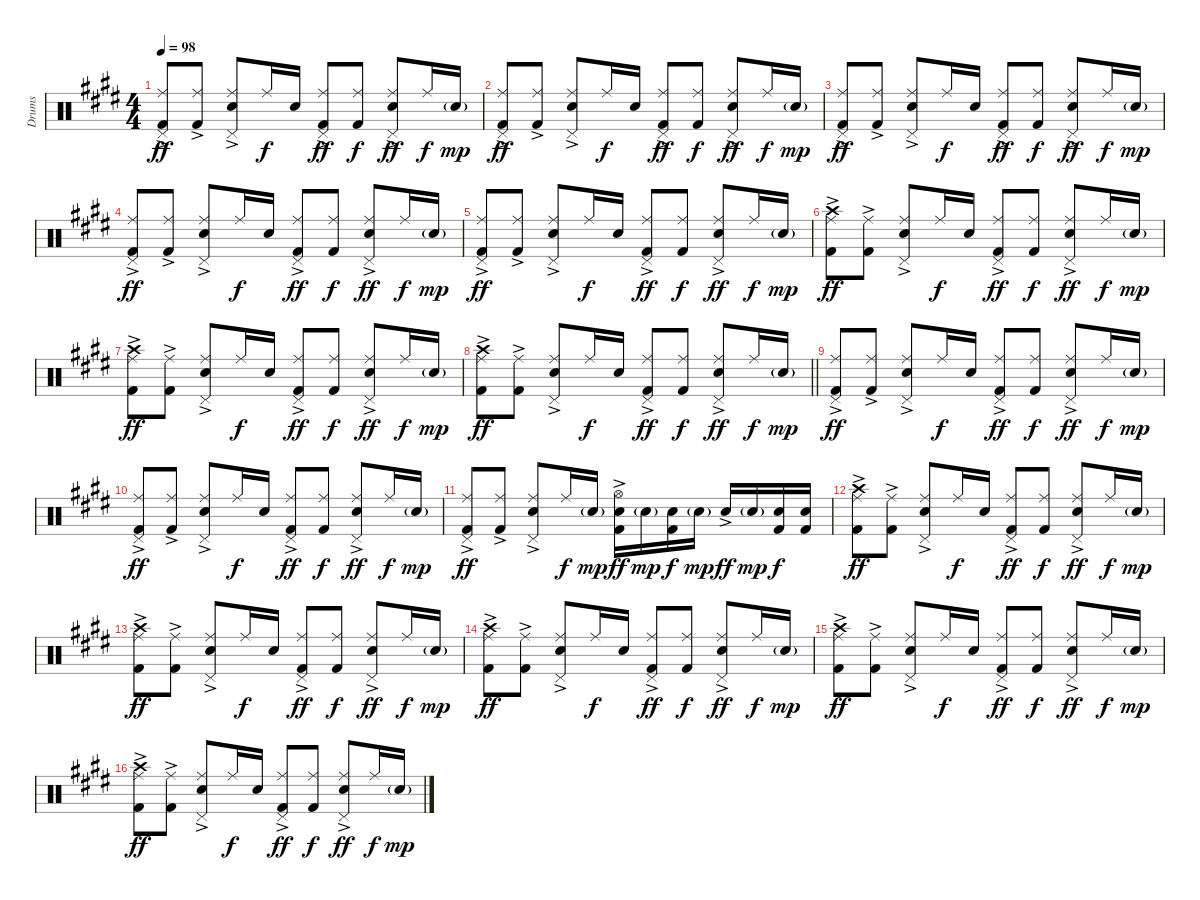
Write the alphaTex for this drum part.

\track ("Drums" "Drums") {instrument percussion}
\staff {score}
\articulation defaults
\ts (4 4)
\tempo 98
\clef neutral
\ks e
("Pedal Hi-Hat (hit)" "Ride (middle)" "Kick (hit) 2"{ac}).8{dy ff} ("Ride (middle)" "Kick (hit) 2"{ac}).8 ("Pedal Hi-Hat (hit)" "Snare (hit) 2"{ac} "Ride (middle)").8 "Ride (middle)".16{dy f} "Snare (hit) 2".16 ("Pedal Hi-Hat (hit)" "Ride (middle)" "Kick (hit) 2"{ac}).8{dy ff} ("Ride (middle)" "Kick (hit) 2").8{dy f} ("Pedal Hi-Hat (hit)" "Snare (hit) 2"{ac} "Ride (middle)").8{dy ff} "Ride (middle)".16{dy f} "Snare (hit) 2"{g}.16{dy mp} |
("Pedal Hi-Hat (hit)" "Ride (middle)" "Kick (hit) 2"{ac}).8{dy ff} ("Ride (middle)" "Kick (hit) 2"{ac}).8 ("Pedal Hi-Hat (hit)" "Snare (hit) 2"{ac} "Ride (middle)").8 "Ride (middle)".16{dy f} "Snare (hit) 2".16 ("Pedal Hi-Hat (hit)" "Ride (middle)" "Kick (hit) 2"{ac}).8{dy ff} ("Ride (middle)" "Kick (hit) 2").8{dy f} ("Pedal Hi-Hat (hit)" "Snare (hit) 2"{ac} "Ride (middle)").8{dy ff} "Ride (middle)".16{dy f} "Snare (hit) 2"{g}.16{dy mp} |
("Pedal Hi-Hat (hit)" "Ride (middle)" "Kick (hit) 2"{ac}).8{dy ff} ("Ride (middle)" "Kick (hit) 2"{ac}).8 ("Pedal Hi-Hat (hit)" "Snare (hit) 2"{ac} "Ride (middle)").8 "Ride (middle)".16{dy f} "Snare (hit) 2".16 ("Pedal Hi-Hat (hit)" "Ride (middle)" "Kick (hit) 2"{ac}).8{dy ff} ("Ride (middle)" "Kick (hit) 2").8{dy f} ("Pedal Hi-Hat (hit)" "Snare (hit) 2"{ac} "Ride (middle)").8{dy ff} "Ride (middle)".16{dy f} "Snare (hit) 2"{g}.16{dy mp} |
("Pedal Hi-Hat (hit)" "Ride (middle)" "Kick (hit) 2"{ac}).8{dy ff} ("Ride (middle)" "Kick (hit) 2"{ac}).8 ("Pedal Hi-Hat (hit)" "Snare (hit) 2"{ac} "Ride (middle)").8 "Ride (middle)".16{dy f} "Snare (hit) 2".16 ("Pedal Hi-Hat (hit)" "Ride (middle)" "Kick (hit) 2"{ac}).8{dy ff} ("Ride (middle)" "Kick (hit) 2").8{dy f} ("Pedal Hi-Hat (hit)" "Snare (hit) 2"{ac} "Ride (middle)").8{dy ff} "Ride (middle)".16{dy f} "Snare (hit) 2"{g}.16{dy mp} |
("Pedal Hi-Hat (hit)" "Ride (middle)" "Kick (hit) 2"{ac}).8{dy ff} ("Ride (middle)" "Kick (hit) 2"{ac}).8 ("Pedal Hi-Hat (hit)" "Snare (hit) 2"{ac} "Ride (middle)").8 "Ride (middle)".16{dy f} "Snare (hit) 2".16 ("Pedal Hi-Hat (hit)" "Ride (middle)" "Kick (hit) 2"{ac}).8{dy ff} ("Ride (middle)" "Kick (hit) 2").8{dy f} ("Pedal Hi-Hat (hit)" "Snare (hit) 2"{ac} "Ride (middle)").8{dy ff} "Ride (middle)".16{dy f} "Snare (hit) 2"{g}.16{dy mp} |
("Crash high (hit)" "Ride (middle)" "Kick (hit) 2"{ac}).8{dy ff} ("Ride (middle)" "Kick (hit) 2"{ac}).8 ("Pedal Hi-Hat (hit)" "Snare (hit) 2"{ac} "Ride (middle)").8 "Ride (middle)".16{dy f} "Snare (hit) 2".16 ("Pedal Hi-Hat (hit)" "Ride (middle)" "Kick (hit) 2"{ac}).8{dy ff} ("Ride (middle)" "Kick (hit) 2").8{dy f} ("Pedal Hi-Hat (hit)" "Snare (hit) 2"{ac} "Ride (middle)").8{dy ff} "Ride (middle)".16{dy f} "Snare (hit) 2"{g}.16{dy mp} |
("Crash high (hit)" "Ride (middle)" "Kick (hit) 2"{ac}).8{dy ff} ("Ride (middle)" "Kick (hit) 2"{ac}).8 ("Pedal Hi-Hat (hit)" "Snare (hit) 2"{ac} "Ride (middle)").8 "Ride (middle)".16{dy f} "Snare (hit) 2".16 ("Pedal Hi-Hat (hit)" "Ride (middle)" "Kick (hit) 2"{ac}).8{dy ff} ("Ride (middle)" "Kick (hit) 2").8{dy f} ("Pedal Hi-Hat (hit)" "Snare (hit) 2"{ac} "Ride (middle)").8{dy ff} "Ride (middle)".16{dy f} "Snare (hit) 2"{g}.16{dy mp} |
\barLineRight lightlight
("Crash high (hit)" "Ride (middle)" "Kick (hit) 2"{ac}).8{dy ff} ("Ride (middle)" "Kick (hit) 2"{ac}).8 ("Pedal Hi-Hat (hit)" "Snare (hit) 2"{ac} "Ride (middle)").8 "Ride (middle)".16{dy f} "Snare (hit) 2".16 ("Pedal Hi-Hat (hit)" "Ride (middle)" "Kick (hit) 2"{ac}).8{dy ff} ("Ride (middle)" "Kick (hit) 2").8{dy f} ("Pedal Hi-Hat (hit)" "Snare (hit) 2"{ac} "Ride (middle)").8{dy ff} "Ride (middle)".16{dy f} "Snare (hit) 2"{g}.16{dy mp} |
("Pedal Hi-Hat (hit)" "Ride (middle)" "Kick (hit) 2"{ac}).8{dy ff} ("Ride (middle)" "Kick (hit) 2"{ac}).8 ("Pedal Hi-Hat (hit)" "Snare (hit) 2"{ac} "Ride (middle)").8 "Ride (middle)".16{dy f} "Snare (hit) 2".16 ("Pedal Hi-Hat (hit)" "Ride (middle)" "Kick (hit) 2"{ac}).8{dy ff} ("Ride (middle)" "Kick (hit) 2").8{dy f} ("Pedal Hi-Hat (hit)" "Snare (hit) 2"{ac} "Ride (middle)").8{dy ff} "Ride (middle)".16{dy f} "Snare (hit) 2"{g}.16{dy mp} |
("Pedal Hi-Hat (hit)" "Ride (middle)" "Kick (hit) 2"{ac}).8{dy ff} ("Ride (middle)" "Kick (hit) 2"{ac}).8 ("Pedal Hi-Hat (hit)" "Snare (hit) 2"{ac} "Ride (middle)").8 "Ride (middle)".16{dy f} "Snare (hit) 2".16 ("Pedal Hi-Hat (hit)" "Ride (middle)" "Kick (hit) 2"{ac}).8{dy ff} ("Ride (middle)" "Kick (hit) 2").8{dy f} ("Pedal Hi-Hat (hit)" "Snare (hit) 2"{ac} "Ride (middle)").8{dy ff} "Ride (middle)".16{dy f} "Snare (hit) 2"{g}.16{dy mp} |
("Pedal Hi-Hat (hit)" "Ride (middle)" "Kick (hit) 2"{ac}).8{dy ff} ("Ride (middle)" "Kick (hit) 2"{ac}).8 ("Pedal Hi-Hat (hit)" "Snare (hit) 2"{ac} "Ride (middle)").8 "Ride (middle)".16{dy f} "Snare (hit) 2"{g}.16{dy mp} ("Hi-Hat (open)" "Snare (hit) 2" "Kick (hit) 2"{ac}).16{dy ff} "Snare (hit) 2"{g}.16{dy mp} ("Snare (hit) 2" "Kick (hit) 2").16{dy f} "Snare (hit) 2"{g}.16{dy mp} "Snare (hit) 2"{ac}.16{dy ff} "Snare (hit) 2"{g}.16{dy mp} ("Snare (hit) 2" "Kick (hit) 2").16{dy f} ("Snare (hit) 2" "Kick (hit) 2").16 |
("Crash high (hit)" "Ride (middle)" "Kick (hit) 2"{ac}).8{dy ff} ("Ride (middle)" "Kick (hit) 2"{ac}).8 ("Pedal Hi-Hat (hit)" "Snare (hit) 2"{ac} "Ride (middle)").8 "Ride (middle)".16{dy f} "Snare (hit) 2".16 ("Pedal Hi-Hat (hit)" "Ride (middle)" "Kick (hit) 2"{ac}).8{dy ff} ("Ride (middle)" "Kick (hit) 2").8{dy f} ("Pedal Hi-Hat (hit)" "Snare (hit) 2"{ac} "Ride (middle)").8{dy ff} "Ride (middle)".16{dy f} "Snare (hit) 2"{g}.16{dy mp} |
("Crash high (hit)" "Ride (middle)" "Kick (hit) 2"{ac}).8{dy ff} ("Ride (middle)" "Kick (hit) 2"{ac}).8 ("Pedal Hi-Hat (hit)" "Snare (hit) 2"{ac} "Ride (middle)").8 "Ride (middle)".16{dy f} "Snare (hit) 2".16 ("Pedal Hi-Hat (hit)" "Ride (middle)" "Kick (hit) 2"{ac}).8{dy ff} ("Ride (middle)" "Kick (hit) 2").8{dy f} ("Pedal Hi-Hat (hit)" "Snare (hit) 2"{ac} "Ride (middle)").8{dy ff} "Ride (middle)".16{dy f} "Snare (hit) 2"{g}.16{dy mp} |
("Crash high (hit)" "Ride (middle)" "Kick (hit) 2"{ac}).8{dy ff} ("Ride (middle)" "Kick (hit) 2"{ac}).8 ("Pedal Hi-Hat (hit)" "Snare (hit) 2"{ac} "Ride (middle)").8 "Ride (middle)".16{dy f} "Snare (hit) 2".16 ("Pedal Hi-Hat (hit)" "Ride (middle)" "Kick (hit) 2"{ac}).8{dy ff} ("Ride (middle)" "Kick (hit) 2").8{dy f} ("Pedal Hi-Hat (hit)" "Snare (hit) 2"{ac} "Ride (middle)").8{dy ff} "Ride (middle)".16{dy f} "Snare (hit) 2"{g}.16{dy mp} |
("Crash high (hit)" "Ride (middle)" "Kick (hit) 2"{ac}).8{dy ff} ("Ride (middle)" "Kick (hit) 2"{ac}).8 ("Pedal Hi-Hat (hit)" "Snare (hit) 2"{ac} "Ride (middle)").8 "Ride (middle)".16{dy f} "Snare (hit) 2".16 ("Pedal Hi-Hat (hit)" "Ride (middle)" "Kick (hit) 2"{ac}).8{dy ff} ("Ride (middle)" "Kick (hit) 2").8{dy f} ("Pedal Hi-Hat (hit)" "Snare (hit) 2"{ac} "Ride (middle)").8{dy ff} "Ride (middle)".16{dy f} "Snare (hit) 2"{g}.16{dy mp} |
("Crash high (hit)" "Ride (middle)" "Kick (hit) 2"{ac}).8{dy ff} ("Ride (middle)" "Kick (hit) 2"{ac}).8 ("Pedal Hi-Hat (hit)" "Snare (hit) 2"{ac} "Ride (middle)").8 "Ride (middle)".16{dy f} "Snare (hit) 2".16 ("Pedal Hi-Hat (hit)" "Ride (middle)" "Kick (hit) 2"{ac}).8{dy ff} ("Ride (middle)" "Kick (hit) 2").8{dy f} ("Pedal Hi-Hat (hit)" "Snare (hit) 2"{ac} "Ride (middle)").8{dy ff} "Ride (middle)".16{dy f} "Snare (hit) 2"{g}.16{dy mp}
